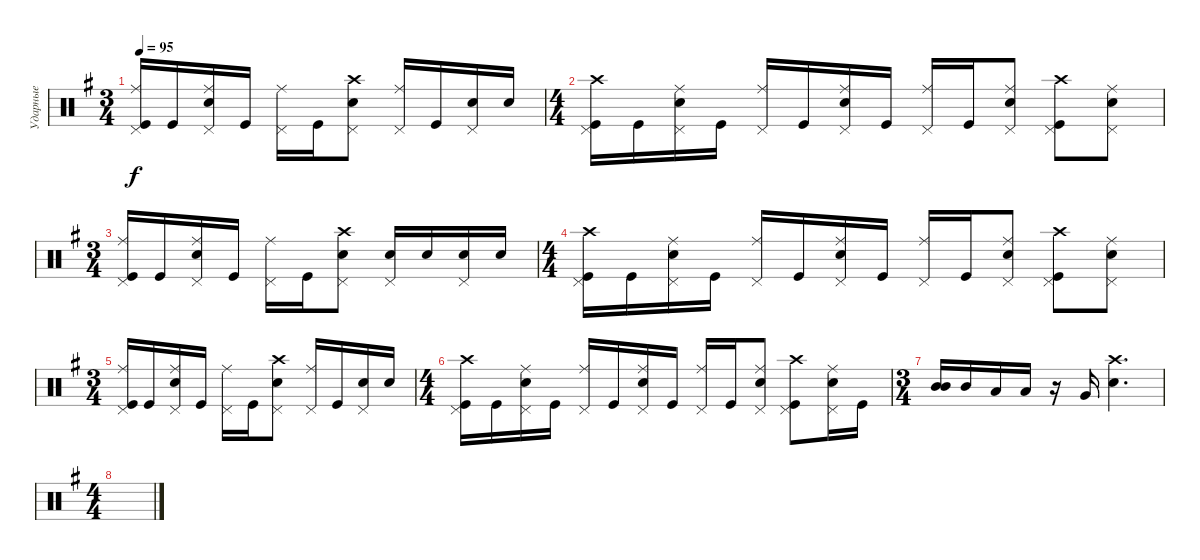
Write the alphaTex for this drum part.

\track ("Ударные" "Ударные") {instrument percussion}
\staff {score}
\articulation defaults
\ts (3 4)
\tempo 95
\clef neutral
\ks eminor
("Kick (hit)" "Pedal Hi-Hat (hit)" "Ride (middle)").16{dy f} "Kick (hit)".16 ("Snare (hit) 2" "Pedal Hi-Hat (hit)" "Ride (middle)").16 "Kick (hit)".16 ("Pedal Hi-Hat (hit)" "Ride (middle)").16 "Kick (hit)".16 ("Snare (hit) 2" "Pedal Hi-Hat (hit)" "Crash high (hit)").8 ("Pedal Hi-Hat (hit)" "Ride (middle)").16 "Kick (hit)".16 ("Snare (hit) 2" "Pedal Hi-Hat (hit)").16 "Snare (hit) 2".16 |
\ts (4 4)
("Kick (hit)" "Pedal Hi-Hat (hit)" "Crash high (hit)").16 "Kick (hit)".16 ("Snare (hit) 2" "Pedal Hi-Hat (hit)" "Ride (middle)").16 "Kick (hit)".16 ("Pedal Hi-Hat (hit)" "Ride (middle)").16 "Kick (hit)".16 ("Snare (hit) 2" "Pedal Hi-Hat (hit)" "Ride (middle)").16 "Kick (hit)".16 ("Pedal Hi-Hat (hit)" "Ride (middle)").16 "Kick (hit)".16 ("Snare (hit) 2" "Pedal Hi-Hat (hit)" "Ride (middle)").8 ("Kick (hit)" "Crash high (hit)" "Pedal Hi-Hat (hit)").8 ("Snare (hit) 2" "Pedal Hi-Hat (hit)" "Ride (middle)").8 |
\ts (3 4)
("Kick (hit)" "Pedal Hi-Hat (hit)" "Ride (middle)").16 "Kick (hit)".16 ("Snare (hit) 2" "Pedal Hi-Hat (hit)" "Ride (middle)").16 "Kick (hit)".16 ("Pedal Hi-Hat (hit)" "Ride (middle)").16 "Kick (hit)".16 ("Snare (hit) 2" "Pedal Hi-Hat (hit)" "Crash high (hit)").8 ("Pedal Hi-Hat (hit)" "Snare (hit) 2").16 "Snare (hit) 2".16 ("Snare (hit) 2" "Pedal Hi-Hat (hit)").16 "Snare (hit) 2".16 |
\ts (4 4)
("Kick (hit)" "Pedal Hi-Hat (hit)" "Crash high (hit)").16 "Kick (hit)".16 ("Snare (hit) 2" "Pedal Hi-Hat (hit)" "Ride (middle)").16 "Kick (hit)".16 ("Pedal Hi-Hat (hit)" "Ride (middle)").16 "Kick (hit)".16 ("Snare (hit) 2" "Pedal Hi-Hat (hit)" "Ride (middle)").16 "Kick (hit)".16 ("Pedal Hi-Hat (hit)" "Ride (middle)").16 "Kick (hit)".16 ("Snare (hit) 2" "Pedal Hi-Hat (hit)" "Ride (middle)").8 ("Kick (hit)" "Crash high (hit)" "Pedal Hi-Hat (hit)").8 ("Snare (hit) 2" "Pedal Hi-Hat (hit)" "Ride (middle)").8 |
\ts (3 4)
("Kick (hit)" "Pedal Hi-Hat (hit)" "Ride (middle)").16 "Kick (hit)".16 ("Snare (hit) 2" "Pedal Hi-Hat (hit)" "Ride (middle)").16 "Kick (hit)".16 ("Pedal Hi-Hat (hit)" "Ride (middle)").16 "Kick (hit)".16 ("Snare (hit) 2" "Pedal Hi-Hat (hit)" "Crash high (hit)").8 ("Pedal Hi-Hat (hit)" "Ride (middle)").16 "Kick (hit)".16 ("Snare (hit) 2" "Pedal Hi-Hat (hit)").16 "Snare (hit) 2".16 |
\ts (4 4)
("Kick (hit)" "Pedal Hi-Hat (hit)" "Crash high (hit)").16 "Kick (hit)".16 ("Snare (hit) 2" "Pedal Hi-Hat (hit)" "Ride (middle)").16 "Kick (hit)".16 ("Pedal Hi-Hat (hit)" "Ride (middle)").16 "Kick (hit)".16 ("Snare (hit) 2" "Pedal Hi-Hat (hit)" "Ride (middle)").16 "Kick (hit)".16 ("Pedal Hi-Hat (hit)" "Ride (middle)").16 "Kick (hit)".16 ("Snare (hit) 2" "Pedal Hi-Hat (hit)" "Ride (middle)").8 ("Kick (hit)" "Crash high (hit)" "Pedal Hi-Hat (hit)").8 ("Snare (hit) 2" "Pedal Hi-Hat (hit)" "Ride (middle)").16 "Kick (hit)".16 |
\ts (3 4)
("Mid Tom (hit)" "Mid Tom (hit)").16{bd 240} "Mid Tom (hit)".16 "Low Tom (hit)".16 "Low Tom (hit)".16 r.16 "Very Low Tom (hit)".16 ("Snare (hit) 2" "Crash high (hit)").4{d} |
\ts (4 4)
